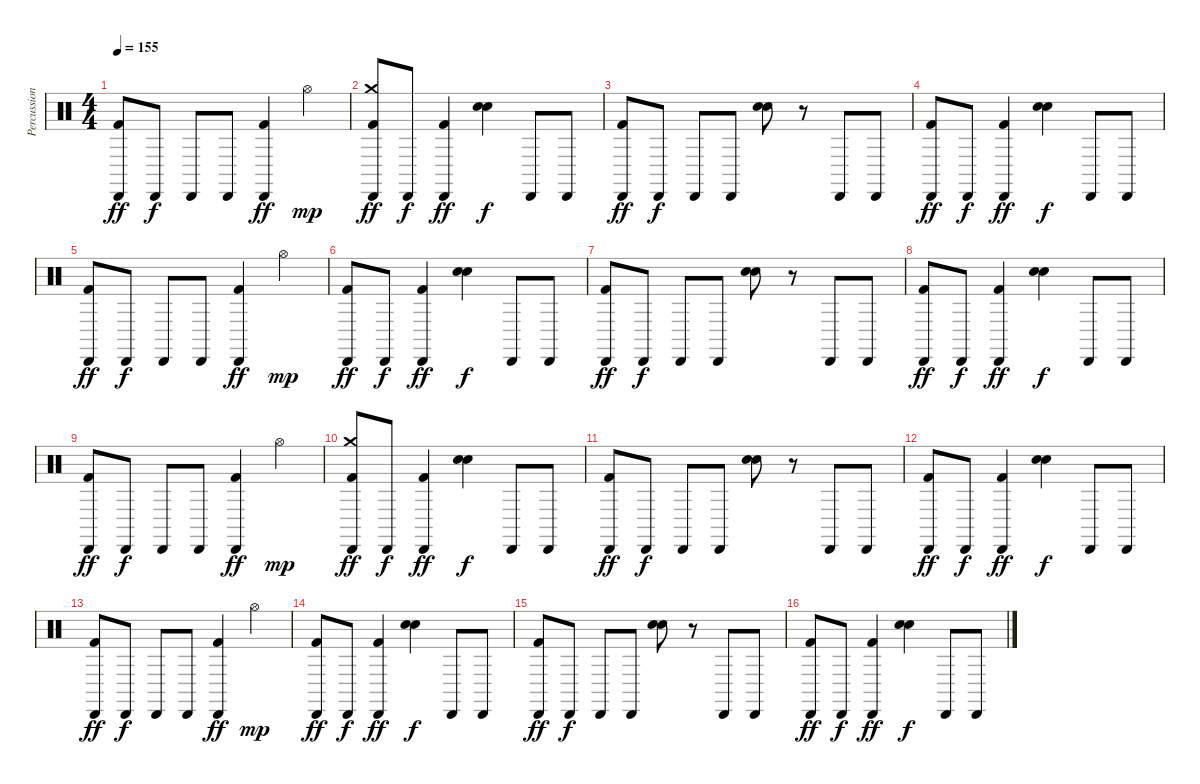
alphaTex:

\track ("Percussion" "Percussion") {instrument percussion}
\staff {score}
\articulation defaults
\ts (4 4)
\tempo 155
\clef neutral
\ks c
("Cabasa (hit)" "Kick (hit) 2").8{dy ff} "Cabasa (hit)".8{dy f} "Cabasa (hit)".8 "Cabasa (hit)".8 ("Cabasa (hit)" "Kick (hit) 2").4{dy ff} "Hi-Hat (open)".4{dy mp} |
("Cabasa (hit)" "Kick (hit) 2" "Crash medium (hit)").8{dy ff} "Cabasa (hit)".8{dy f} ("Cabasa (hit)" "Kick (hit) 2").4{dy ff} ("Electric Snare (hit)" "Hand Clap (hit)").4{dy f} "Cabasa (hit)".8 "Cabasa (hit)".8 |
("Cabasa (hit)" "Kick (hit) 2").8{dy ff} "Cabasa (hit)".8{dy f} "Cabasa (hit)".8 "Cabasa (hit)".8 ("Electric Snare (hit)" "Hand Clap (hit)").8 r.8 "Cabasa (hit)".8 "Cabasa (hit)".8 |
("Cabasa (hit)" "Kick (hit) 2").8{dy ff} "Cabasa (hit)".8{dy f} ("Cabasa (hit)" "Kick (hit) 2").4{dy ff} ("Electric Snare (hit)" "Hand Clap (hit)").4{dy f} "Cabasa (hit)".8 "Cabasa (hit)".8 |
("Cabasa (hit)" "Kick (hit) 2").8{dy ff} "Cabasa (hit)".8{dy f} "Cabasa (hit)".8 "Cabasa (hit)".8 ("Cabasa (hit)" "Kick (hit) 2").4{dy ff} "Hi-Hat (open)".4{dy mp} |
("Cabasa (hit)" "Kick (hit) 2").8{dy ff} "Cabasa (hit)".8{dy f} ("Cabasa (hit)" "Kick (hit) 2").4{dy ff} ("Electric Snare (hit)" "Hand Clap (hit)").4{dy f} "Cabasa (hit)".8 "Cabasa (hit)".8 |
("Cabasa (hit)" "Kick (hit) 2").8{dy ff} "Cabasa (hit)".8{dy f} "Cabasa (hit)".8 "Cabasa (hit)".8 ("Electric Snare (hit)" "Hand Clap (hit)").8 r.8 "Cabasa (hit)".8 "Cabasa (hit)".8 |
("Cabasa (hit)" "Kick (hit) 2").8{dy ff} "Cabasa (hit)".8{dy f} ("Cabasa (hit)" "Kick (hit) 2").4{dy ff} ("Electric Snare (hit)" "Hand Clap (hit)").4{dy f} "Cabasa (hit)".8 "Cabasa (hit)".8 |
("Cabasa (hit)" "Kick (hit) 2").8{dy ff} "Cabasa (hit)".8{dy f} "Cabasa (hit)".8 "Cabasa (hit)".8 ("Cabasa (hit)" "Kick (hit) 2").4{dy ff} "Hi-Hat (open)".4{dy mp} |
("Cabasa (hit)" "Kick (hit) 2" "Crash medium (hit)").8{dy ff} "Cabasa (hit)".8{dy f} ("Cabasa (hit)" "Kick (hit) 2").4{dy ff} ("Electric Snare (hit)" "Hand Clap (hit)").4{dy f} "Cabasa (hit)".8 "Cabasa (hit)".8 |
("Cabasa (hit)" "Kick (hit) 2").8{dy ff} "Cabasa (hit)".8{dy f} "Cabasa (hit)".8 "Cabasa (hit)".8 ("Electric Snare (hit)" "Hand Clap (hit)").8 r.8 "Cabasa (hit)".8 "Cabasa (hit)".8 |
("Cabasa (hit)" "Kick (hit) 2").8{dy ff} "Cabasa (hit)".8{dy f} ("Cabasa (hit)" "Kick (hit) 2").4{dy ff} ("Electric Snare (hit)" "Hand Clap (hit)").4{dy f} "Cabasa (hit)".8 "Cabasa (hit)".8 |
("Cabasa (hit)" "Kick (hit) 2").8{dy ff} "Cabasa (hit)".8{dy f} "Cabasa (hit)".8 "Cabasa (hit)".8 ("Cabasa (hit)" "Kick (hit) 2").4{dy ff} "Hi-Hat (open)".4{dy mp} |
("Cabasa (hit)" "Kick (hit) 2").8{dy ff} "Cabasa (hit)".8{dy f} ("Cabasa (hit)" "Kick (hit) 2").4{dy ff} ("Electric Snare (hit)" "Hand Clap (hit)").4{dy f} "Cabasa (hit)".8 "Cabasa (hit)".8 |
("Cabasa (hit)" "Kick (hit) 2").8{dy ff} "Cabasa (hit)".8{dy f} "Cabasa (hit)".8 "Cabasa (hit)".8 ("Electric Snare (hit)" "Hand Clap (hit)").8 r.8 "Cabasa (hit)".8 "Cabasa (hit)".8 |
("Cabasa (hit)" "Kick (hit) 2").8{dy ff} "Cabasa (hit)".8{dy f} ("Cabasa (hit)" "Kick (hit) 2").4{dy ff} ("Electric Snare (hit)" "Hand Clap (hit)").4{dy f} "Cabasa (hit)".8 "Cabasa (hit)".8
